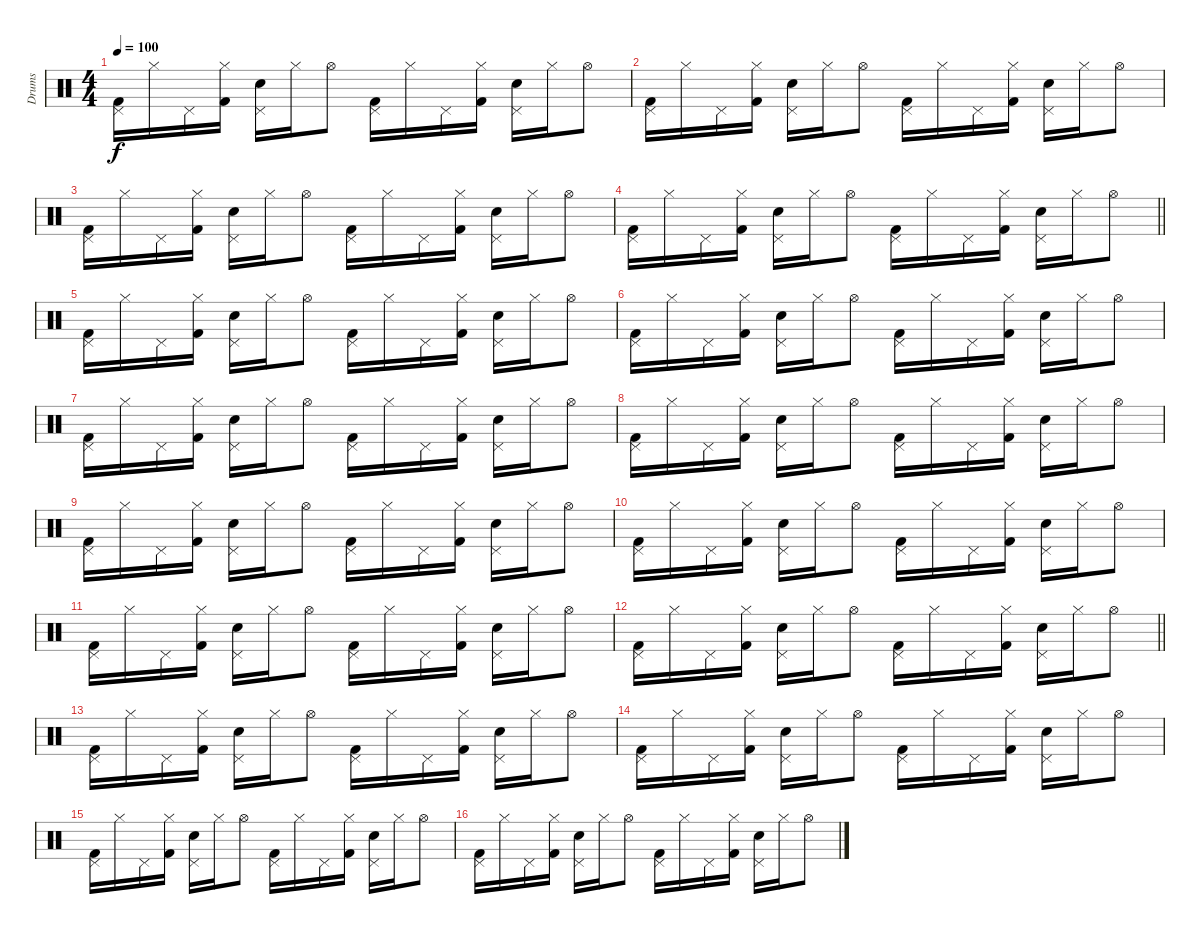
\track ("Drums" "Drums") {instrument percussion}
\staff {score}
\articulation defaults
\ts (4 4)
\tempo 100
\clef neutral
\ks c
("Pedal Hi-Hat (hit)" "Kick (hit) 2").16{dy f} "Hi-Hat (closed)".16 "Pedal Hi-Hat (hit)".16 ("Hi-Hat (closed)" "Kick (hit) 2").16 ("Pedal Hi-Hat (hit)" "Electric Snare (hit)").16 "Hi-Hat (closed)".16 "Hi-Hat (open)".8 ("Pedal Hi-Hat (hit)" "Kick (hit) 2").16 "Hi-Hat (closed)".16 "Pedal Hi-Hat (hit)".16 ("Hi-Hat (closed)" "Kick (hit) 2").16 ("Pedal Hi-Hat (hit)" "Electric Snare (hit)").16 "Hi-Hat (closed)".16 "Hi-Hat (open)".8 |
("Pedal Hi-Hat (hit)" "Kick (hit) 2").16 "Hi-Hat (closed)".16 "Pedal Hi-Hat (hit)".16 ("Hi-Hat (closed)" "Kick (hit) 2").16 ("Pedal Hi-Hat (hit)" "Electric Snare (hit)").16 "Hi-Hat (closed)".16 "Hi-Hat (open)".8 ("Pedal Hi-Hat (hit)" "Kick (hit) 2").16 "Hi-Hat (closed)".16 "Pedal Hi-Hat (hit)".16 ("Hi-Hat (closed)" "Kick (hit) 2").16 ("Pedal Hi-Hat (hit)" "Electric Snare (hit)").16 "Hi-Hat (closed)".16 "Hi-Hat (open)".8 |
("Pedal Hi-Hat (hit)" "Kick (hit) 2").16 "Hi-Hat (closed)".16 "Pedal Hi-Hat (hit)".16 ("Hi-Hat (closed)" "Kick (hit) 2").16 ("Pedal Hi-Hat (hit)" "Electric Snare (hit)").16 "Hi-Hat (closed)".16 "Hi-Hat (open)".8 ("Pedal Hi-Hat (hit)" "Kick (hit) 2").16 "Hi-Hat (closed)".16 "Pedal Hi-Hat (hit)".16 ("Hi-Hat (closed)" "Kick (hit) 2").16 ("Pedal Hi-Hat (hit)" "Electric Snare (hit)").16 "Hi-Hat (closed)".16 "Hi-Hat (open)".8 |
\barLineRight lightlight
("Pedal Hi-Hat (hit)" "Kick (hit) 2").16 "Hi-Hat (closed)".16 "Pedal Hi-Hat (hit)".16 ("Hi-Hat (closed)" "Kick (hit) 2").16 ("Pedal Hi-Hat (hit)" "Electric Snare (hit)").16 "Hi-Hat (closed)".16 "Hi-Hat (open)".8 ("Pedal Hi-Hat (hit)" "Kick (hit) 2").16 "Hi-Hat (closed)".16 "Pedal Hi-Hat (hit)".16 ("Hi-Hat (closed)" "Kick (hit) 2").16 ("Pedal Hi-Hat (hit)" "Electric Snare (hit)").16 "Hi-Hat (closed)".16 "Hi-Hat (open)".8 |
("Pedal Hi-Hat (hit)" "Kick (hit) 2").16 "Hi-Hat (closed)".16 "Pedal Hi-Hat (hit)".16 ("Hi-Hat (closed)" "Kick (hit) 2").16 ("Pedal Hi-Hat (hit)" "Electric Snare (hit)").16 "Hi-Hat (closed)".16 "Hi-Hat (open)".8 ("Pedal Hi-Hat (hit)" "Kick (hit) 2").16 "Hi-Hat (closed)".16 "Pedal Hi-Hat (hit)".16 ("Hi-Hat (closed)" "Kick (hit) 2").16 ("Pedal Hi-Hat (hit)" "Electric Snare (hit)").16 "Hi-Hat (closed)".16 "Hi-Hat (open)".8 |
("Pedal Hi-Hat (hit)" "Kick (hit) 2").16 "Hi-Hat (closed)".16 "Pedal Hi-Hat (hit)".16 ("Hi-Hat (closed)" "Kick (hit) 2").16 ("Pedal Hi-Hat (hit)" "Electric Snare (hit)").16 "Hi-Hat (closed)".16 "Hi-Hat (open)".8 ("Pedal Hi-Hat (hit)" "Kick (hit) 2").16 "Hi-Hat (closed)".16 "Pedal Hi-Hat (hit)".16 ("Hi-Hat (closed)" "Kick (hit) 2").16 ("Pedal Hi-Hat (hit)" "Electric Snare (hit)").16 "Hi-Hat (closed)".16 "Hi-Hat (open)".8 |
("Pedal Hi-Hat (hit)" "Kick (hit) 2").16 "Hi-Hat (closed)".16 "Pedal Hi-Hat (hit)".16 ("Hi-Hat (closed)" "Kick (hit) 2").16 ("Pedal Hi-Hat (hit)" "Electric Snare (hit)").16 "Hi-Hat (closed)".16 "Hi-Hat (open)".8 ("Pedal Hi-Hat (hit)" "Kick (hit) 2").16 "Hi-Hat (closed)".16 "Pedal Hi-Hat (hit)".16 ("Hi-Hat (closed)" "Kick (hit) 2").16 ("Pedal Hi-Hat (hit)" "Electric Snare (hit)").16 "Hi-Hat (closed)".16 "Hi-Hat (open)".8 |
("Pedal Hi-Hat (hit)" "Kick (hit) 2").16 "Hi-Hat (closed)".16 "Pedal Hi-Hat (hit)".16 ("Hi-Hat (closed)" "Kick (hit) 2").16 ("Pedal Hi-Hat (hit)" "Electric Snare (hit)").16 "Hi-Hat (closed)".16 "Hi-Hat (open)".8 ("Pedal Hi-Hat (hit)" "Kick (hit) 2").16 "Hi-Hat (closed)".16 "Pedal Hi-Hat (hit)".16 ("Hi-Hat (closed)" "Kick (hit) 2").16 ("Pedal Hi-Hat (hit)" "Electric Snare (hit)").16 "Hi-Hat (closed)".16 "Hi-Hat (open)".8 |
("Pedal Hi-Hat (hit)" "Kick (hit) 2").16 "Hi-Hat (closed)".16 "Pedal Hi-Hat (hit)".16 ("Hi-Hat (closed)" "Kick (hit) 2").16 ("Pedal Hi-Hat (hit)" "Electric Snare (hit)").16 "Hi-Hat (closed)".16 "Hi-Hat (open)".8 ("Pedal Hi-Hat (hit)" "Kick (hit) 2").16 "Hi-Hat (closed)".16 "Pedal Hi-Hat (hit)".16 ("Hi-Hat (closed)" "Kick (hit) 2").16 ("Pedal Hi-Hat (hit)" "Electric Snare (hit)").16 "Hi-Hat (closed)".16 "Hi-Hat (open)".8 |
("Pedal Hi-Hat (hit)" "Kick (hit) 2").16 "Hi-Hat (closed)".16 "Pedal Hi-Hat (hit)".16 ("Hi-Hat (closed)" "Kick (hit) 2").16 ("Pedal Hi-Hat (hit)" "Electric Snare (hit)").16 "Hi-Hat (closed)".16 "Hi-Hat (open)".8 ("Pedal Hi-Hat (hit)" "Kick (hit) 2").16 "Hi-Hat (closed)".16 "Pedal Hi-Hat (hit)".16 ("Hi-Hat (closed)" "Kick (hit) 2").16 ("Pedal Hi-Hat (hit)" "Electric Snare (hit)").16 "Hi-Hat (closed)".16 "Hi-Hat (open)".8 |
("Pedal Hi-Hat (hit)" "Kick (hit) 2").16 "Hi-Hat (closed)".16 "Pedal Hi-Hat (hit)".16 ("Hi-Hat (closed)" "Kick (hit) 2").16 ("Pedal Hi-Hat (hit)" "Electric Snare (hit)").16 "Hi-Hat (closed)".16 "Hi-Hat (open)".8 ("Pedal Hi-Hat (hit)" "Kick (hit) 2").16 "Hi-Hat (closed)".16 "Pedal Hi-Hat (hit)".16 ("Hi-Hat (closed)" "Kick (hit) 2").16 ("Pedal Hi-Hat (hit)" "Electric Snare (hit)").16 "Hi-Hat (closed)".16 "Hi-Hat (open)".8 |
\barLineRight lightlight
("Pedal Hi-Hat (hit)" "Kick (hit) 2").16 "Hi-Hat (closed)".16 "Pedal Hi-Hat (hit)".16 ("Hi-Hat (closed)" "Kick (hit) 2").16 ("Pedal Hi-Hat (hit)" "Electric Snare (hit)").16 "Hi-Hat (closed)".16 "Hi-Hat (open)".8 ("Pedal Hi-Hat (hit)" "Kick (hit) 2").16 "Hi-Hat (closed)".16 "Pedal Hi-Hat (hit)".16 ("Hi-Hat (closed)" "Kick (hit) 2").16 ("Pedal Hi-Hat (hit)" "Electric Snare (hit)").16 "Hi-Hat (closed)".16 "Hi-Hat (open)".8 |
("Pedal Hi-Hat (hit)" "Kick (hit) 2").16 "Hi-Hat (closed)".16 "Pedal Hi-Hat (hit)".16 ("Hi-Hat (closed)" "Kick (hit) 2").16 ("Pedal Hi-Hat (hit)" "Electric Snare (hit)").16 "Hi-Hat (closed)".16 "Hi-Hat (open)".8 ("Pedal Hi-Hat (hit)" "Kick (hit) 2").16 "Hi-Hat (closed)".16 "Pedal Hi-Hat (hit)".16 ("Hi-Hat (closed)" "Kick (hit) 2").16 ("Pedal Hi-Hat (hit)" "Electric Snare (hit)").16 "Hi-Hat (closed)".16 "Hi-Hat (open)".8 |
("Pedal Hi-Hat (hit)" "Kick (hit) 2").16 "Hi-Hat (closed)".16 "Pedal Hi-Hat (hit)".16 ("Hi-Hat (closed)" "Kick (hit) 2").16 ("Pedal Hi-Hat (hit)" "Electric Snare (hit)").16 "Hi-Hat (closed)".16 "Hi-Hat (open)".8 ("Pedal Hi-Hat (hit)" "Kick (hit) 2").16 "Hi-Hat (closed)".16 "Pedal Hi-Hat (hit)".16 ("Hi-Hat (closed)" "Kick (hit) 2").16 ("Pedal Hi-Hat (hit)" "Electric Snare (hit)").16 "Hi-Hat (closed)".16 "Hi-Hat (open)".8 |
("Pedal Hi-Hat (hit)" "Kick (hit) 2").16 "Hi-Hat (closed)".16 "Pedal Hi-Hat (hit)".16 ("Hi-Hat (closed)" "Kick (hit) 2").16 ("Pedal Hi-Hat (hit)" "Electric Snare (hit)").16 "Hi-Hat (closed)".16 "Hi-Hat (open)".8 ("Pedal Hi-Hat (hit)" "Kick (hit) 2").16 "Hi-Hat (closed)".16 "Pedal Hi-Hat (hit)".16 ("Hi-Hat (closed)" "Kick (hit) 2").16 ("Pedal Hi-Hat (hit)" "Electric Snare (hit)").16 "Hi-Hat (closed)".16 "Hi-Hat (open)".8 |
("Pedal Hi-Hat (hit)" "Kick (hit) 2").16 "Hi-Hat (closed)".16 "Pedal Hi-Hat (hit)".16 ("Hi-Hat (closed)" "Kick (hit) 2").16 ("Pedal Hi-Hat (hit)" "Electric Snare (hit)").16 "Hi-Hat (closed)".16 "Hi-Hat (open)".8 ("Pedal Hi-Hat (hit)" "Kick (hit) 2").16 "Hi-Hat (closed)".16 "Pedal Hi-Hat (hit)".16 ("Hi-Hat (closed)" "Kick (hit) 2").16 ("Pedal Hi-Hat (hit)" "Electric Snare (hit)").16 "Hi-Hat (closed)".16 "Hi-Hat (open)".8
